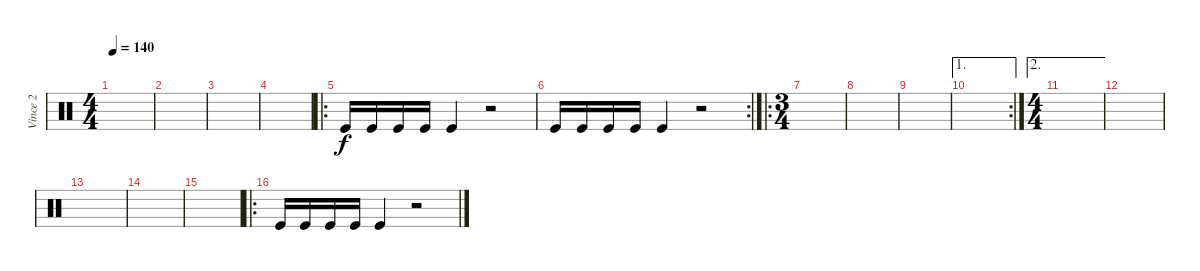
\track ("Vince 2" "Vince 2") {instrument percussion}
\staff {score}
\articulation defaults
\ts (4 4)
\tempo 140
\clef neutral
\ks c
|
|
|
|
\ro "Kick (hit)".16 "Kick (hit)".16 "Kick (hit)".16 "Kick (hit)".16 "Kick (hit)".4
r.2 |
\rc 2 "Kick (hit)".16 "Kick (hit)".16 "Kick (hit)".16 "Kick (hit)".16 "Kick (hit)".4
r.2 |
\ro
\ts (3 4)
|
|
|
\ae 1
\rc 2
|
\ae 2
\ts (4 4)
|
|
|
|
|
\ro "Kick (hit)".16 "Kick (hit)".16 "Kick (hit)".16 "Kick (hit)".16 "Kick (hit)".4
r.2
